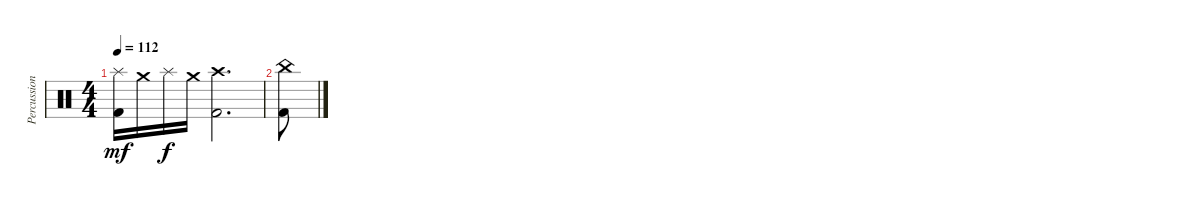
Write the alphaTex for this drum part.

\track ("Percussion" "Percussion") {instrument percussion}
\staff {score}
\articulation defaults
\ts (4 4)
\tempo 112
\clef neutral
\ks c
("Splash (hit)" "Kick (hit) 2").16{dy mf} "Crash medium (hit)".16 "Splash (hit)".16{dy f} "Crash medium (hit)".16 ("Crash high (hit)" "Kick (hit) 2").2{d} |
("China (hit)" "Kick (hit) 2").8
